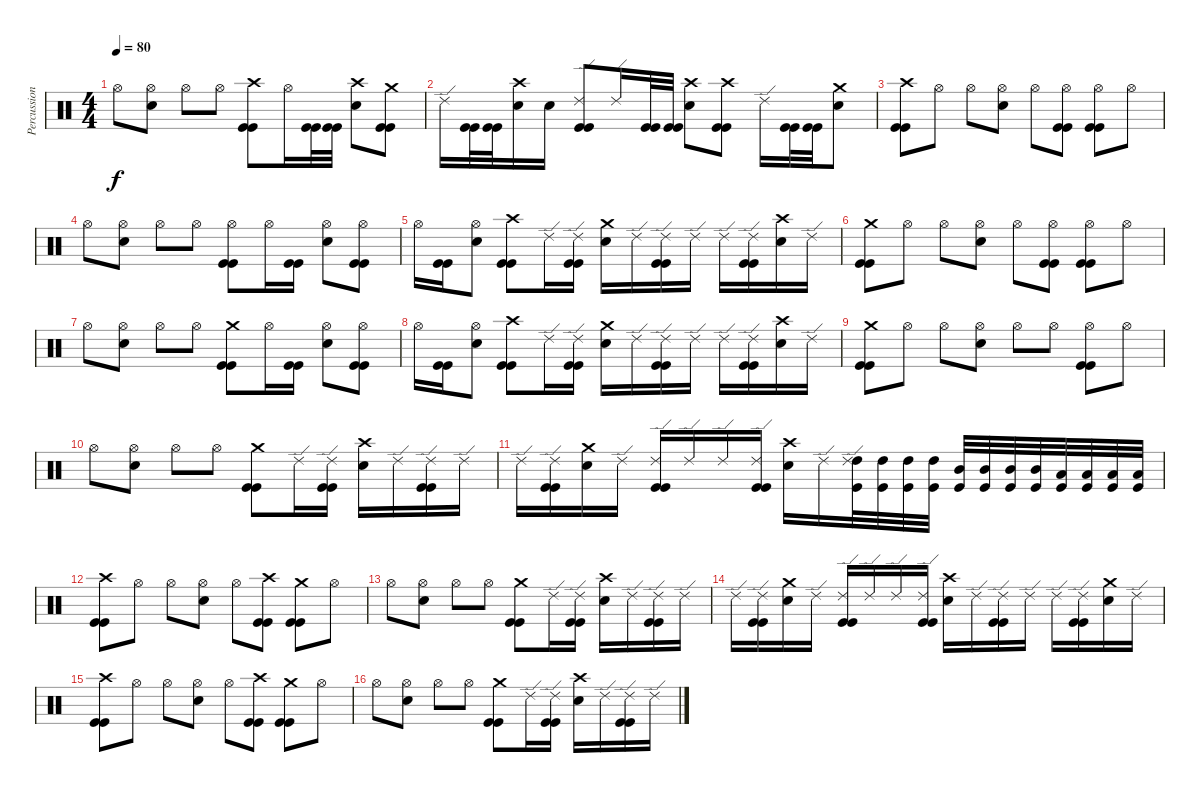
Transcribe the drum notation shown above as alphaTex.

\track ("Percussions" "Percussion") {instrument percussion}
\staff {score}
\articulation defaults
\ts (4 4)
\tempo 80
\clef neutral
\ks c "Hi-Hat (open)".8{dy f}
("Electric Snare (hit)" "Hi-Hat (open)").8 "Hi-Hat (open)".8 "Hi-Hat (open)".8 ("Kick (hit)" "Kick (hit)" "Crash high (hit)").8 "Hi-Hat (open)".16 ("Kick (hit)" "Kick (hit)").32 ("Kick (hit)" "Kick (hit)").32 ("Electric Snare (hit)" "Crash high (hit)").8 ("Kick (hit)" "Kick (hit)" "Crash medium (hit)").8 |
"Ride (edge) 2".16 ("Kick (hit)" "Kick (hit)").32 ("Kick (hit)" "Kick (hit)").32 ("Electric Snare (hit)" "Crash high (hit)").16 "Electric Snare (hit)".16 ("Kick (hit)" "Kick (hit)" "Ride (edge) 2").8 "Ride (edge) 2".16 ("Kick (hit)" "Kick (hit)").32 ("Kick (hit)" "Kick (hit)").32 ("Electric Snare (hit)" "Crash high (hit)").8 ("Kick (hit)" "Kick (hit)" "Crash high (hit)").8 "Ride (edge) 2".16 ("Kick (hit)" "Kick (hit)").32 ("Kick (hit)" "Kick (hit)").32 ("Electric Snare (hit)" "Crash medium (hit)").8 |
("Kick (hit)" "Kick (hit)" "Crash high (hit)").8 "Hi-Hat (open)".8 "Hi-Hat (open)".8 ("Electric Snare (hit)" "Hi-Hat (open)").8 "Hi-Hat (open)".8 ("Kick (hit)" "Kick (hit)" "Hi-Hat (open)").8 ("Kick (hit)" "Kick (hit)" "Hi-Hat (open)").8 "Hi-Hat (open)".8 |
"Hi-Hat (open)".8 ("Electric Snare (hit)" "Hi-Hat (open)").8 "Hi-Hat (open)".8 "Hi-Hat (open)".8 ("Kick (hit)" "Kick (hit)" "Hi-Hat (open)").8 "Hi-Hat (open)".16 ("Kick (hit)" "Kick (hit)").16 ("Electric Snare (hit)" "Hi-Hat (open)").8 ("Kick (hit)" "Kick (hit)" "Hi-Hat (open)").8 |
"Hi-Hat (open)".16 ("Kick (hit)" "Kick (hit)").16 ("Electric Snare (hit)" "Hi-Hat (open)").8 ("Kick (hit)" "Kick (hit)" "Crash high (hit)").8 "Ride (edge) 2".16 ("Kick (hit)" "Kick (hit)" "Ride (edge) 2").16 ("Electric Snare (hit)" "Crash medium (hit)").16 "Ride (edge) 2".16 ("Kick (hit)" "Kick (hit)" "Ride (edge) 2").16 "Ride (edge) 2".16 "Ride (edge) 2".16 ("Kick (hit)" "Kick (hit)" "Ride (edge) 2").16 ("Electric Snare (hit)" "Crash high (hit)").16 "Ride (edge) 2".16 |
("Kick (hit)" "Kick (hit)" "Crash medium (hit)").8 "Hi-Hat (open)".8 "Hi-Hat (open)".8 ("Electric Snare (hit)" "Hi-Hat (open)").8 "Hi-Hat (open)".8 ("Kick (hit)" "Kick (hit)" "Hi-Hat (open)").8 ("Kick (hit)" "Kick (hit)" "Hi-Hat (open)").8 "Hi-Hat (open)".8 |
"Hi-Hat (open)".8 ("Electric Snare (hit)" "Hi-Hat (open)").8 "Hi-Hat (open)".8 "Hi-Hat (open)".8 ("Kick (hit)" "Kick (hit)" "Crash medium (hit)").8 "Hi-Hat (open)".16 ("Kick (hit)" "Kick (hit)").16 ("Electric Snare (hit)" "Hi-Hat (open)").8 ("Kick (hit)" "Kick (hit)" "Hi-Hat (open)").8 |
"Hi-Hat (open)".16 ("Kick (hit)" "Kick (hit)").16 ("Electric Snare (hit)" "Hi-Hat (open)").8 ("Kick (hit)" "Kick (hit)" "Crash high (hit)").8 "Ride (edge) 2".16 ("Kick (hit)" "Kick (hit)" "Ride (edge) 2").16 ("Electric Snare (hit)" "Crash medium (hit)").16 "Ride (edge) 2".16 ("Kick (hit)" "Kick (hit)" "Ride (edge) 2").16 "Ride (edge) 2".16 "Ride (edge) 2".16 ("Kick (hit)" "Kick (hit)" "Ride (edge) 2").16 ("Electric Snare (hit)" "Crash high (hit)").16 "Ride (edge) 2".16 |
("Kick (hit)" "Kick (hit)" "Crash medium (hit)").8 "Hi-Hat (open)".8 "Hi-Hat (open)".8 ("Electric Snare (hit)" "Hi-Hat (open)").8 "Hi-Hat (open)".8 "Hi-Hat (open)".8 ("Kick (hit)" "Kick (hit)" "Hi-Hat (open)").8 "Hi-Hat (open)".8 |
"Hi-Hat (open)".8 ("Electric Snare (hit)" "Hi-Hat (open)").8 "Hi-Hat (open)".8 "Hi-Hat (open)".8 ("Kick (hit)" "Kick (hit)" "Crash medium (hit)").8 "Ride (edge) 2".16 ("Kick (hit)" "Kick (hit)" "Ride (edge) 2").16 ("Electric Snare (hit)" "Crash high (hit)").16 "Ride (edge) 2".16 ("Kick (hit)" "Kick (hit)" "Ride (edge) 2").16 "Ride (edge) 2".16 |
"Ride (edge) 2".16 ("Kick (hit)" "Kick (hit)" "Ride (edge) 2").16 ("Electric Snare (hit)" "Crash medium (hit)").16 "Ride (edge) 2".16 ("Kick (hit)" "Kick (hit)" "Ride (edge) 2").16 "Ride (edge) 2".16 "Ride (edge) 2".16 ("Kick (hit)" "Kick (hit)" "Ride (edge) 2").16 ("Electric Snare (hit)" "Crash high (hit)").16 "Ride (edge) 2".16 ("Kick (hit)" "High Tom (hit)" "Ride (edge) 2").32 ("Kick (hit)" "High Tom (hit)").32 ("Kick (hit)" "High Tom (hit)").32 ("Kick (hit)" "High Tom (hit)").32 ("Kick (hit)" "Mid Tom (hit)").32 ("Kick (hit)" "Mid Tom (hit)").32 ("Kick (hit)" "Mid Tom (hit)").32 ("Kick (hit)" "Mid Tom (hit)").32 ("Kick (hit)" "Low Tom (hit)").32 ("Kick (hit)" "Low Tom (hit)").32 ("Kick (hit)" "Low Tom (hit)").32 ("Kick (hit)" "Low Tom (hit)").32 |
("Kick (hit)" "Kick (hit)" "Crash high (hit)").8 "Hi-Hat (open)".8 "Hi-Hat (open)".8 ("Electric Snare (hit)" "Hi-Hat (open)").8 "Hi-Hat (open)".8 ("Kick (hit)" "Kick (hit)" "Crash high (hit)").8 ("Kick (hit)" "Kick (hit)" "Crash medium (hit)").8 "Hi-Hat (open)".8 |
"Hi-Hat (open)".8 ("Electric Snare (hit)" "Hi-Hat (open)").8 "Hi-Hat (open)".8 "Hi-Hat (open)".8 ("Kick (hit)" "Kick (hit)" "Crash medium (hit)").8 "Ride (edge) 2".16 ("Kick (hit)" "Kick (hit)" "Ride (edge) 2").16 ("Electric Snare (hit)" "Crash high (hit)").16 "Ride (edge) 2".16 ("Kick (hit)" "Kick (hit)" "Ride (edge) 2").16 "Ride (edge) 2".16 |
"Ride (edge) 2".16 ("Kick (hit)" "Kick (hit)" "Ride (edge) 2").16 ("Electric Snare (hit)" "Crash medium (hit)").16 "Ride (edge) 2".16 ("Kick (hit)" "Kick (hit)" "Ride (edge) 2").16 "Ride (edge) 2".16 "Ride (edge) 2".16 ("Kick (hit)" "Kick (hit)" "Ride (edge) 2").16 ("Electric Snare (hit)" "Crash high (hit)").16 "Ride (edge) 2".16 ("Kick (hit)" "Kick (hit)" "Ride (edge) 2").16 "Ride (edge) 2".16 "Ride (edge) 2".16 ("Kick (hit)" "Kick (hit)" "Ride (edge) 2").16 ("Electric Snare (hit)" "Crash medium (hit)").16 "Ride (edge) 2".16 |
("Kick (hit)" "Kick (hit)" "Crash high (hit)").8 "Hi-Hat (open)".8 "Hi-Hat (open)".8 ("Electric Snare (hit)" "Hi-Hat (open)").8 "Hi-Hat (open)".8 ("Kick (hit)" "Kick (hit)" "Crash high (hit)").8 ("Kick (hit)" "Kick (hit)" "Crash medium (hit)").8 "Hi-Hat (open)".8 |
"Hi-Hat (open)".8 ("Electric Snare (hit)" "Hi-Hat (open)").8 "Hi-Hat (open)".8 "Hi-Hat (open)".8 ("Kick (hit)" "Kick (hit)" "Crash medium (hit)").8 "Ride (edge) 2".16 ("Kick (hit)" "Kick (hit)" "Ride (edge) 2").16 ("Electric Snare (hit)" "Crash high (hit)").16 "Ride (edge) 2".16 ("Kick (hit)" "Kick (hit)" "Ride (edge) 2").16 "Ride (edge) 2".16
